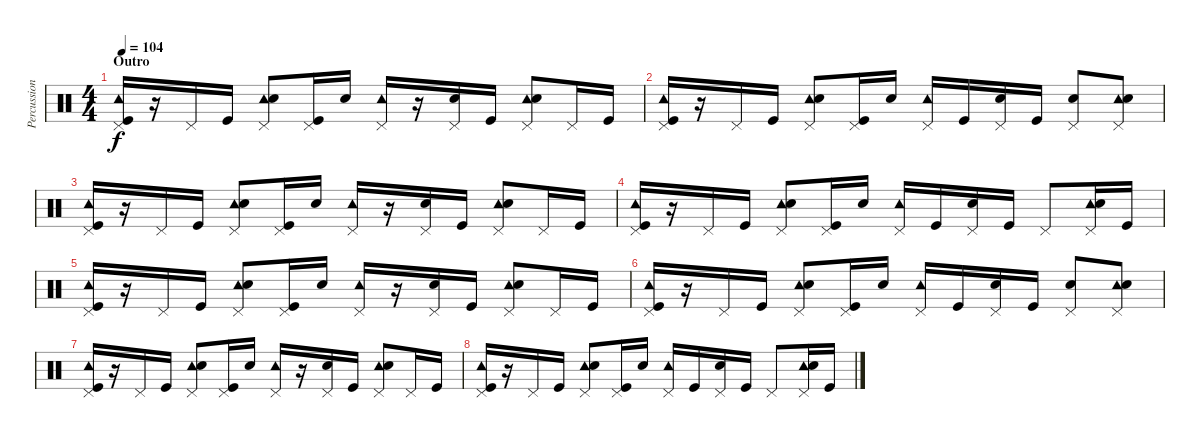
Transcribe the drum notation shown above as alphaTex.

\track ("Percussion" "Percussion") {instrument percussion}
\staff {score}
\articulation defaults
\ts (4 4)
\section ("" "Outro")
\tempo 104
\clef neutral
\ks c
("Tambourine (hit)" "Pedal Hi-Hat (hit)" "Kick (hit)").16{dy f volume 8} r.16 "Pedal Hi-Hat (hit)".16 "Kick (hit)".16 ("Tambourine (hit)" "Pedal Hi-Hat (hit)" "Snare (hit) 2").8 ("Pedal Hi-Hat (hit)" "Kick (hit)").16 "Snare (hit) 2".16 ("Tambourine (hit)" "Pedal Hi-Hat (hit)").16 r.16 ("Pedal Hi-Hat (hit)" "Snare (hit) 2").16 "Kick (hit)".16 ("Tambourine (hit)" "Pedal Hi-Hat (hit)" "Snare (hit) 2").8 "Pedal Hi-Hat (hit)".16 "Kick (hit)".16 |
("Tambourine (hit)" "Pedal Hi-Hat (hit)" "Kick (hit)").16 r.16 "Pedal Hi-Hat (hit)".16 "Kick (hit)".16 ("Tambourine (hit)" "Pedal Hi-Hat (hit)" "Snare (hit) 2").8 ("Pedal Hi-Hat (hit)" "Kick (hit)").16 "Snare (hit) 2".16 ("Tambourine (hit)" "Pedal Hi-Hat (hit)").16 "Kick (hit)".16 ("Pedal Hi-Hat (hit)" "Snare (hit) 2").16 "Kick (hit)".16 ("Pedal Hi-Hat (hit)" "Snare (hit) 2").8 ("Tambourine (hit)" "Pedal Hi-Hat (hit)" "Snare (hit) 2").8 |
("Tambourine (hit)" "Pedal Hi-Hat (hit)" "Kick (hit)").16 r.16 "Pedal Hi-Hat (hit)".16 "Kick (hit)".16 ("Tambourine (hit)" "Pedal Hi-Hat (hit)" "Snare (hit) 2").8 ("Pedal Hi-Hat (hit)" "Kick (hit)").16 "Snare (hit) 2".16 ("Tambourine (hit)" "Pedal Hi-Hat (hit)").16 r.16 ("Pedal Hi-Hat (hit)" "Snare (hit) 2").16 "Kick (hit)".16 ("Tambourine (hit)" "Pedal Hi-Hat (hit)" "Snare (hit) 2").8 "Pedal Hi-Hat (hit)".16 "Kick (hit)".16 |
("Tambourine (hit)" "Pedal Hi-Hat (hit)" "Kick (hit)").16 r.16 "Pedal Hi-Hat (hit)".16 "Kick (hit)".16 ("Tambourine (hit)" "Pedal Hi-Hat (hit)" "Snare (hit) 2").8 ("Pedal Hi-Hat (hit)" "Kick (hit)").16 "Snare (hit) 2".16 ("Tambourine (hit)" "Pedal Hi-Hat (hit)").16 "Kick (hit)".16 ("Pedal Hi-Hat (hit)" "Snare (hit) 2").16 "Kick (hit)".16 "Pedal Hi-Hat (hit)".8 ("Tambourine (hit)" "Pedal Hi-Hat (hit)" "Snare (hit) 2").16 "Kick (hit)".16 |
("Tambourine (hit)" "Pedal Hi-Hat (hit)" "Kick (hit)").16{volume 0} r.16 "Pedal Hi-Hat (hit)".16 "Kick (hit)".16 ("Tambourine (hit)" "Pedal Hi-Hat (hit)" "Snare (hit) 2").8 ("Pedal Hi-Hat (hit)" "Kick (hit)").16 "Snare (hit) 2".16 ("Tambourine (hit)" "Pedal Hi-Hat (hit)").16 r.16 ("Pedal Hi-Hat (hit)" "Snare (hit) 2").16 "Kick (hit)".16 ("Tambourine (hit)" "Pedal Hi-Hat (hit)" "Snare (hit) 2").8 "Pedal Hi-Hat (hit)".16 "Kick (hit)".16 |
("Tambourine (hit)" "Pedal Hi-Hat (hit)" "Kick (hit)").16 r.16 "Pedal Hi-Hat (hit)".16 "Kick (hit)".16 ("Tambourine (hit)" "Pedal Hi-Hat (hit)" "Snare (hit) 2").8 ("Pedal Hi-Hat (hit)" "Kick (hit)").16 "Snare (hit) 2".16 ("Tambourine (hit)" "Pedal Hi-Hat (hit)").16 "Kick (hit)".16 ("Pedal Hi-Hat (hit)" "Snare (hit) 2").16 "Kick (hit)".16 ("Pedal Hi-Hat (hit)" "Snare (hit) 2").8 ("Tambourine (hit)" "Pedal Hi-Hat (hit)" "Snare (hit) 2").8 |
("Tambourine (hit)" "Pedal Hi-Hat (hit)" "Kick (hit)").16 r.16 "Pedal Hi-Hat (hit)".16 "Kick (hit)".16 ("Tambourine (hit)" "Pedal Hi-Hat (hit)" "Snare (hit) 2").8 ("Pedal Hi-Hat (hit)" "Kick (hit)").16 "Snare (hit) 2".16 ("Tambourine (hit)" "Pedal Hi-Hat (hit)").16 r.16 ("Pedal Hi-Hat (hit)" "Snare (hit) 2").16 "Kick (hit)".16 ("Tambourine (hit)" "Pedal Hi-Hat (hit)" "Snare (hit) 2").8 "Pedal Hi-Hat (hit)".16 "Kick (hit)".16 |
("Tambourine (hit)" "Pedal Hi-Hat (hit)" "Kick (hit)").16 r.16 "Pedal Hi-Hat (hit)".16 "Kick (hit)".16 ("Tambourine (hit)" "Pedal Hi-Hat (hit)" "Snare (hit) 2").8 ("Pedal Hi-Hat (hit)" "Kick (hit)").16 "Snare (hit) 2".16 ("Tambourine (hit)" "Pedal Hi-Hat (hit)").16 "Kick (hit)".16 ("Pedal Hi-Hat (hit)" "Snare (hit) 2").16 "Kick (hit)".16 "Pedal Hi-Hat (hit)".8 ("Tambourine (hit)" "Pedal Hi-Hat (hit)" "Snare (hit) 2").16 "Kick (hit)".16
